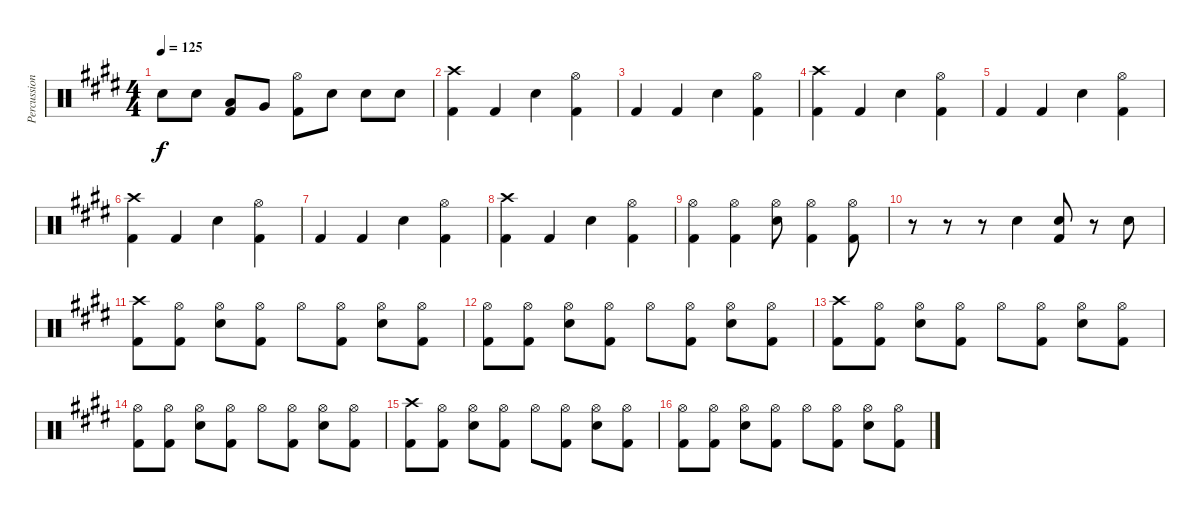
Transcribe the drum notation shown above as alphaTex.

\track ("Percussion" "Percussion") {instrument percussion}
\staff {score}
\articulation defaults
\ts (4 4)
\tempo 125
\clef neutral
\ks e "Electric Snare (hit)".8{dy f} "Electric Snare (hit)".8
("Low Tom (hit)" "Kick (hit) 2").8 "Very Low Tom (hit)".8 ("Hi-Hat (open)" "Kick (hit) 2").8 "Electric Snare (hit)".8 "Electric Snare (hit)".8 "Electric Snare (hit)".8 |
("Crash high (hit)" "Kick (hit) 2").4 "Kick (hit) 2".4 "Electric Snare (hit)".4 ("Hi-Hat (open)" "Kick (hit) 2").4 |
"Kick (hit) 2".4 "Kick (hit) 2".4 "Electric Snare (hit)".4 ("Hi-Hat (open)" "Kick (hit) 2").4 |
("Crash high (hit)" "Kick (hit) 2").4 "Kick (hit) 2".4 "Electric Snare (hit)".4 ("Hi-Hat (open)" "Kick (hit) 2").4 |
"Kick (hit) 2".4 "Kick (hit) 2".4 "Electric Snare (hit)".4 ("Hi-Hat (open)" "Kick (hit) 2").4 |
("Crash high (hit)" "Kick (hit) 2").4 "Kick (hit) 2".4 "Electric Snare (hit)".4 ("Hi-Hat (open)" "Kick (hit) 2").4 |
"Kick (hit) 2".4 "Kick (hit) 2".4 "Electric Snare (hit)".4 ("Hi-Hat (open)" "Kick (hit) 2").4 |
("Crash high (hit)" "Kick (hit) 2").4 "Kick (hit) 2".4 "Electric Snare (hit)".4 ("Hi-Hat (open)" "Kick (hit) 2").4 |
("Hi-Hat (open)" "Kick (hit) 2").4 ("Hi-Hat (open)" "Kick (hit) 2").4 ("Hi-Hat (open)" "Electric Snare (hit)").8 ("Hi-Hat (open)" "Kick (hit) 2").4 ("Hi-Hat (open)" "Kick (hit) 2").8 |
r.8 r.8 r.8 "Electric Snare (hit)".4 ("Electric Snare (hit)" "Kick (hit) 2").8 r.8 "Electric Snare (hit)".8 |
("Crash high (hit)" "Kick (hit) 2").8 ("Hi-Hat (open)" "Kick (hit) 2").8 ("Hi-Hat (open)" "Electric Snare (hit)").8 ("Hi-Hat (open)" "Kick (hit) 2").8 "Hi-Hat (open)".8 ("Hi-Hat (open)" "Kick (hit) 2").8 ("Hi-Hat (open)" "Electric Snare (hit)").8 ("Hi-Hat (open)" "Kick (hit) 2").8 |
("Hi-Hat (open)" "Kick (hit) 2").8 ("Hi-Hat (open)" "Kick (hit) 2").8 ("Hi-Hat (open)" "Electric Snare (hit)").8 ("Hi-Hat (open)" "Kick (hit) 2").8 "Hi-Hat (open)".8 ("Hi-Hat (open)" "Kick (hit) 2").8 ("Hi-Hat (open)" "Electric Snare (hit)").8 ("Hi-Hat (open)" "Kick (hit) 2").8 |
("Crash high (hit)" "Kick (hit) 2").8 ("Hi-Hat (open)" "Kick (hit) 2").8 ("Hi-Hat (open)" "Electric Snare (hit)").8 ("Hi-Hat (open)" "Kick (hit) 2").8 "Hi-Hat (open)".8 ("Hi-Hat (open)" "Kick (hit) 2").8 ("Hi-Hat (open)" "Electric Snare (hit)").8 ("Hi-Hat (open)" "Kick (hit) 2").8 |
("Hi-Hat (open)" "Kick (hit) 2").8 ("Hi-Hat (open)" "Kick (hit) 2").8 ("Hi-Hat (open)" "Electric Snare (hit)").8 ("Hi-Hat (open)" "Kick (hit) 2").8 "Hi-Hat (open)".8 ("Hi-Hat (open)" "Kick (hit) 2").8 ("Hi-Hat (open)" "Electric Snare (hit)").8 ("Hi-Hat (open)" "Kick (hit) 2").8 |
("Crash high (hit)" "Kick (hit) 2").8 ("Hi-Hat (open)" "Kick (hit) 2").8 ("Hi-Hat (open)" "Electric Snare (hit)").8 ("Hi-Hat (open)" "Kick (hit) 2").8 "Hi-Hat (open)".8 ("Hi-Hat (open)" "Kick (hit) 2").8 ("Hi-Hat (open)" "Electric Snare (hit)").8 ("Hi-Hat (open)" "Kick (hit) 2").8 |
("Hi-Hat (open)" "Kick (hit) 2").8 ("Hi-Hat (open)" "Kick (hit) 2").8 ("Hi-Hat (open)" "Electric Snare (hit)").8 ("Hi-Hat (open)" "Kick (hit) 2").8 "Hi-Hat (open)".8 ("Hi-Hat (open)" "Kick (hit) 2").8 ("Hi-Hat (open)" "Electric Snare (hit)").8 ("Hi-Hat (open)" "Kick (hit) 2").8
